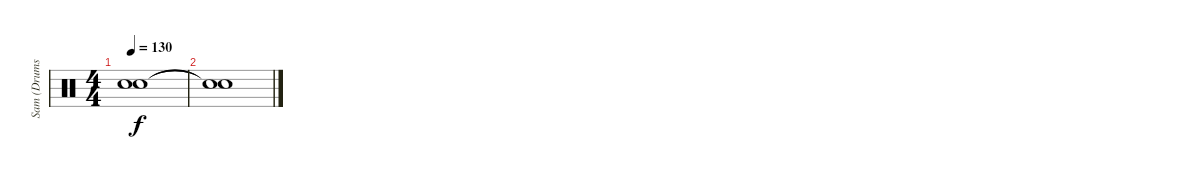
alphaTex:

\track ("Sam (Drums)" "Sam (Drums") {instrument percussion}
\staff {score}
\articulation defaults
\ts (4 4)
\tempo 130
\clef neutral
\ks c
("Snare (hit)"{t} "Snare (hit)"{t}).1{dy f} |
("Snare (hit)"{t} "Snare (hit)"{t}).1
